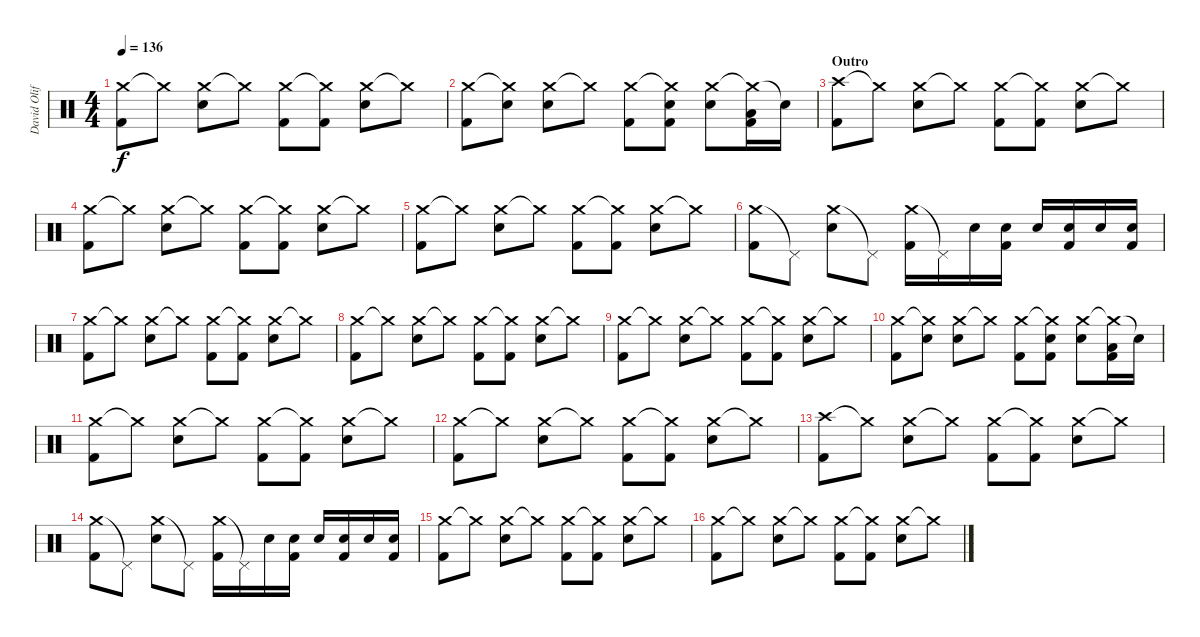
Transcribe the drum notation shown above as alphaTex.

\track ("David Oliffe" "David Olif") {instrument percussion}
\staff {score}
\articulation defaults
\ts (4 4)
\tempo 136
\clef neutral
\ks c
("Crash medium (hit)" "Kick (hit) 2").8{dy f} "Crash medium (hit)"{t}.8 ("Crash medium (hit)" "Electric Snare (hit)").8 "Crash medium (hit)"{t}.8 ("Crash medium (hit)" "Kick (hit) 2").8 ("Crash medium (hit)"{t} "Kick (hit) 2").8 ("Crash medium (hit)" "Electric Snare (hit)").8 "Crash medium (hit)"{t}.8 |
("Crash medium (hit)" "Kick (hit) 2").8 ("Crash medium (hit)"{t} "Electric Snare (hit)").8 ("Crash medium (hit)" "Electric Snare (hit)").8 "Crash medium (hit)"{t}.8 ("Crash medium (hit)" "Kick (hit) 2").8 ("Crash medium (hit)"{t} "Electric Snare (hit)" "Kick (hit) 2").8 ("Crash medium (hit)" "Electric Snare (hit)").8 ("Crash medium (hit)"{t} "Low Tom (hit)" "Kick (hit) 2").16 "Snare (hit)"{t}.16 |
\section ("" "Outro")
("Crash high (hit)" "Kick (hit) 2").8 "Crash medium (hit)"{t}.8 ("Crash medium (hit)" "Electric Snare (hit)").8 "Crash medium (hit)"{t}.8 ("Crash medium (hit)" "Kick (hit) 2").8 ("Crash medium (hit)"{t} "Kick (hit) 2").8 ("Crash medium (hit)" "Electric Snare (hit)").8 "Crash medium (hit)"{t}.8 |
("Crash medium (hit)" "Kick (hit) 2").8 "Crash medium (hit)"{t}.8 ("Crash medium (hit)" "Electric Snare (hit)").8 "Crash medium (hit)"{t}.8 ("Crash medium (hit)" "Kick (hit) 2").8 ("Crash medium (hit)"{t} "Kick (hit) 2").8 ("Crash medium (hit)" "Electric Snare (hit)").8 "Crash medium (hit)"{t}.8 |
("Crash medium (hit)" "Kick (hit) 2").8 "Crash medium (hit)"{t}.8 ("Crash medium (hit)" "Electric Snare (hit)").8 "Crash medium (hit)"{t}.8 ("Crash medium (hit)" "Kick (hit) 2").8 ("Crash medium (hit)"{t} "Kick (hit) 2").8 ("Crash medium (hit)" "Electric Snare (hit)").8 "Crash medium (hit)"{t}.8 |
("Crash medium (hit)" "Kick (hit) 2").8 "Pedal Hi-Hat (hit)"{t}.8 ("Crash medium (hit)" "Electric Snare (hit)").8 "Pedal Hi-Hat (hit)"{t}.8 ("Crash medium (hit)" "Kick (hit) 2").16 "Pedal Hi-Hat (hit)"{t}.16 "Electric Snare (hit)".16 ("Electric Snare (hit)" "Kick (hit) 2").16 "Electric Snare (hit)".16 ("Electric Snare (hit)" "Kick (hit) 2").16 "Electric Snare (hit)".16 ("Electric Snare (hit)" "Kick (hit) 2").16 |
("Crash medium (hit)" "Kick (hit) 2").8 "Crash medium (hit)"{t}.8 ("Crash medium (hit)" "Electric Snare (hit)").8 "Crash medium (hit)"{t}.8 ("Crash medium (hit)" "Kick (hit) 2").8 ("Crash medium (hit)"{t} "Kick (hit) 2").8 ("Crash medium (hit)" "Electric Snare (hit)").8 "Crash medium (hit)"{t}.8 |
("Crash medium (hit)" "Kick (hit) 2").8 "Crash medium (hit)"{t}.8 ("Crash medium (hit)" "Electric Snare (hit)").8 "Crash medium (hit)"{t}.8 ("Crash medium (hit)" "Kick (hit) 2").8 ("Crash medium (hit)"{t} "Kick (hit) 2").8 ("Crash medium (hit)" "Electric Snare (hit)").8 "Crash medium (hit)"{t}.8 |
("Crash medium (hit)" "Kick (hit) 2").8 "Crash medium (hit)"{t}.8 ("Crash medium (hit)" "Electric Snare (hit)").8 "Crash medium (hit)"{t}.8 ("Crash medium (hit)" "Kick (hit) 2").8 ("Crash medium (hit)"{t} "Kick (hit) 2").8 ("Crash medium (hit)" "Electric Snare (hit)").8 "Crash medium (hit)"{t}.8 |
("Crash medium (hit)" "Kick (hit) 2").8 ("Crash medium (hit)"{t} "Electric Snare (hit)").8 ("Crash medium (hit)" "Electric Snare (hit)").8 "Crash medium (hit)"{t}.8 ("Crash medium (hit)" "Kick (hit) 2").8 ("Crash medium (hit)"{t} "Electric Snare (hit)" "Kick (hit) 2").8 ("Crash medium (hit)" "Electric Snare (hit)").8 ("Crash medium (hit)"{t} "Low Tom (hit)" "Kick (hit) 2").16 "Snare (hit)"{t}.16 |
("Crash medium (hit)" "Kick (hit) 2").8 "Crash medium (hit)"{t}.8 ("Crash medium (hit)" "Electric Snare (hit)").8 "Crash medium (hit)"{t}.8 ("Crash medium (hit)" "Kick (hit) 2").8 ("Crash medium (hit)"{t} "Kick (hit) 2").8 ("Crash medium (hit)" "Electric Snare (hit)").8 "Crash medium (hit)"{t}.8 |
("Crash medium (hit)" "Kick (hit) 2").8 "Crash medium (hit)"{t}.8 ("Crash medium (hit)" "Electric Snare (hit)").8 "Crash medium (hit)"{t}.8 ("Crash medium (hit)" "Kick (hit) 2").8 ("Crash medium (hit)"{t} "Kick (hit) 2").8 ("Crash medium (hit)" "Electric Snare (hit)").8 "Crash medium (hit)"{t}.8 |
("Crash high (hit)" "Kick (hit) 2").8 "Crash medium (hit)"{t}.8 ("Crash medium (hit)" "Electric Snare (hit)").8 "Crash medium (hit)"{t}.8 ("Crash medium (hit)" "Kick (hit) 2").8 ("Crash medium (hit)"{t} "Kick (hit) 2").8 ("Crash medium (hit)" "Electric Snare (hit)").8 "Crash medium (hit)"{t}.8 |
("Crash medium (hit)" "Kick (hit) 2").8 "Pedal Hi-Hat (hit)"{t}.8 ("Crash medium (hit)" "Electric Snare (hit)").8 "Pedal Hi-Hat (hit)"{t}.8 ("Crash medium (hit)" "Kick (hit) 2").16 "Pedal Hi-Hat (hit)"{t}.16 "Electric Snare (hit)".16 ("Electric Snare (hit)" "Kick (hit) 2").16 "Electric Snare (hit)".16 ("Electric Snare (hit)" "Kick (hit) 2").16 "Electric Snare (hit)".16 ("Electric Snare (hit)" "Kick (hit) 2").16 |
("Crash medium (hit)" "Kick (hit) 2").8{volume 14} "Crash medium (hit)"{t}.8 ("Crash medium (hit)" "Electric Snare (hit)").8 "Crash medium (hit)"{t}.8 ("Crash medium (hit)" "Kick (hit) 2").8 ("Crash medium (hit)"{t} "Kick (hit) 2").8 ("Crash medium (hit)" "Electric Snare (hit)").8 "Crash medium (hit)"{t}.8 |
("Crash medium (hit)" "Kick (hit) 2").8 "Crash medium (hit)"{t}.8 ("Crash medium (hit)" "Electric Snare (hit)").8 "Crash medium (hit)"{t}.8 ("Crash medium (hit)" "Kick (hit) 2").8 ("Crash medium (hit)"{t} "Kick (hit) 2").8 ("Crash medium (hit)" "Electric Snare (hit)").8 "Crash medium (hit)"{t}.8
